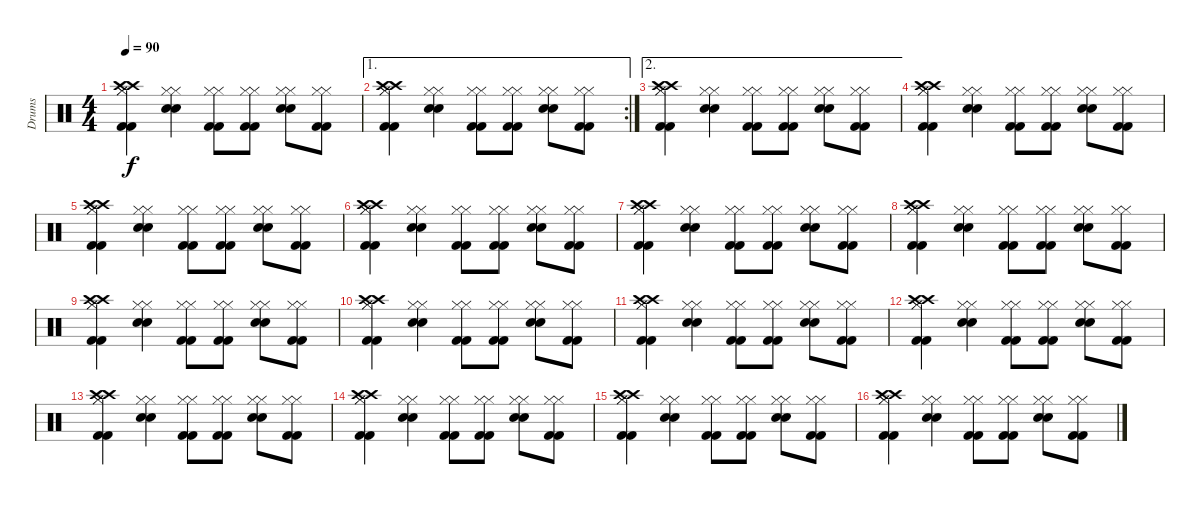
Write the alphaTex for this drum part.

\track ("Drums" "Drums") {instrument percussion}
\staff {score}
\articulation defaults
\ts (4 4)
\tempo 90
\clef neutral
\ks c
("Crash high (hit)" "Crash high (hit)" "Hi-Hat (closed)" "Hi-Hat (closed)" "Kick (hit) 2" "Kick (hit) 2").4{dy f} ("Hi-Hat (closed)" "Hi-Hat (closed)" "Snare (hit) 2" "Snare (hit) 2").4 ("Hi-Hat (closed)" "Hi-Hat (closed)" "Kick (hit) 2" "Kick (hit) 2").8 ("Hi-Hat (closed)" "Hi-Hat (closed)" "Kick (hit) 2" "Kick (hit) 2").8 ("Hi-Hat (closed)" "Hi-Hat (closed)" "Snare (hit) 2" "Snare (hit) 2").8 ("Hi-Hat (closed)" "Hi-Hat (closed)" "Kick (hit) 2" "Kick (hit) 2").8 |
\ae 1
\rc 2
("Crash high (hit)" "Crash high (hit)" "Hi-Hat (closed)" "Hi-Hat (closed)" "Kick (hit) 2" "Kick (hit) 2").4 ("Hi-Hat (closed)" "Hi-Hat (closed)" "Snare (hit) 2" "Snare (hit) 2").4 ("Hi-Hat (closed)" "Hi-Hat (closed)" "Kick (hit) 2" "Kick (hit) 2").8 ("Hi-Hat (closed)" "Hi-Hat (closed)" "Kick (hit) 2" "Kick (hit) 2").8 ("Hi-Hat (closed)" "Hi-Hat (closed)" "Snare (hit) 2" "Snare (hit) 2").8 ("Hi-Hat (closed)" "Hi-Hat (closed)" "Kick (hit) 2" "Kick (hit) 2").8 |
\ae 2
("Crash high (hit)" "Crash high (hit)" "Hi-Hat (closed)" "Hi-Hat (closed)" "Kick (hit) 2" "Kick (hit) 2").4 ("Hi-Hat (closed)" "Hi-Hat (closed)" "Snare (hit) 2" "Snare (hit) 2").4 ("Hi-Hat (closed)" "Hi-Hat (closed)" "Kick (hit) 2" "Kick (hit) 2").8 ("Hi-Hat (closed)" "Hi-Hat (closed)" "Kick (hit) 2" "Kick (hit) 2").8 ("Hi-Hat (closed)" "Hi-Hat (closed)" "Snare (hit) 2" "Snare (hit) 2").8 ("Hi-Hat (closed)" "Hi-Hat (closed)" "Kick (hit) 2" "Kick (hit) 2").8 |
("Crash high (hit)" "Crash high (hit)" "Hi-Hat (closed)" "Hi-Hat (closed)" "Kick (hit) 2" "Kick (hit) 2").4 ("Hi-Hat (closed)" "Hi-Hat (closed)" "Snare (hit) 2" "Snare (hit) 2").4 ("Hi-Hat (closed)" "Hi-Hat (closed)" "Kick (hit) 2" "Kick (hit) 2").8 ("Hi-Hat (closed)" "Hi-Hat (closed)" "Kick (hit) 2" "Kick (hit) 2").8 ("Hi-Hat (closed)" "Hi-Hat (closed)" "Snare (hit) 2" "Snare (hit) 2").8 ("Hi-Hat (closed)" "Hi-Hat (closed)" "Kick (hit) 2" "Kick (hit) 2").8 |
("Crash high (hit)" "Crash high (hit)" "Hi-Hat (closed)" "Hi-Hat (closed)" "Kick (hit) 2" "Kick (hit) 2").4 ("Hi-Hat (closed)" "Hi-Hat (closed)" "Snare (hit) 2" "Snare (hit) 2").4 ("Hi-Hat (closed)" "Hi-Hat (closed)" "Kick (hit) 2" "Kick (hit) 2").8 ("Hi-Hat (closed)" "Hi-Hat (closed)" "Kick (hit) 2" "Kick (hit) 2").8 ("Hi-Hat (closed)" "Hi-Hat (closed)" "Snare (hit) 2" "Snare (hit) 2").8 ("Hi-Hat (closed)" "Hi-Hat (closed)" "Kick (hit) 2" "Kick (hit) 2").8 |
("Crash high (hit)" "Crash high (hit)" "Hi-Hat (closed)" "Hi-Hat (closed)" "Kick (hit) 2" "Kick (hit) 2").4 ("Hi-Hat (closed)" "Hi-Hat (closed)" "Snare (hit) 2" "Snare (hit) 2").4 ("Hi-Hat (closed)" "Hi-Hat (closed)" "Kick (hit) 2" "Kick (hit) 2").8 ("Hi-Hat (closed)" "Hi-Hat (closed)" "Kick (hit) 2" "Kick (hit) 2").8 ("Hi-Hat (closed)" "Hi-Hat (closed)" "Snare (hit) 2" "Snare (hit) 2").8 ("Hi-Hat (closed)" "Hi-Hat (closed)" "Kick (hit) 2" "Kick (hit) 2").8 |
("Crash high (hit)" "Crash high (hit)" "Hi-Hat (closed)" "Hi-Hat (closed)" "Kick (hit) 2" "Kick (hit) 2").4 ("Hi-Hat (closed)" "Hi-Hat (closed)" "Snare (hit) 2" "Snare (hit) 2").4 ("Hi-Hat (closed)" "Hi-Hat (closed)" "Kick (hit) 2" "Kick (hit) 2").8 ("Hi-Hat (closed)" "Hi-Hat (closed)" "Kick (hit) 2" "Kick (hit) 2").8 ("Hi-Hat (closed)" "Hi-Hat (closed)" "Snare (hit) 2" "Snare (hit) 2").8 ("Hi-Hat (closed)" "Hi-Hat (closed)" "Kick (hit) 2" "Kick (hit) 2").8 |
("Crash high (hit)" "Crash high (hit)" "Hi-Hat (closed)" "Hi-Hat (closed)" "Kick (hit) 2" "Kick (hit) 2").4 ("Hi-Hat (closed)" "Hi-Hat (closed)" "Snare (hit) 2" "Snare (hit) 2").4 ("Hi-Hat (closed)" "Hi-Hat (closed)" "Kick (hit) 2" "Kick (hit) 2").8 ("Hi-Hat (closed)" "Hi-Hat (closed)" "Kick (hit) 2" "Kick (hit) 2").8 ("Hi-Hat (closed)" "Hi-Hat (closed)" "Snare (hit) 2" "Snare (hit) 2").8 ("Hi-Hat (closed)" "Hi-Hat (closed)" "Kick (hit) 2" "Kick (hit) 2").8 |
("Crash high (hit)" "Crash high (hit)" "Hi-Hat (closed)" "Hi-Hat (closed)" "Kick (hit) 2" "Kick (hit) 2").4 ("Hi-Hat (closed)" "Hi-Hat (closed)" "Snare (hit) 2" "Snare (hit) 2").4 ("Hi-Hat (closed)" "Hi-Hat (closed)" "Kick (hit) 2" "Kick (hit) 2").8 ("Hi-Hat (closed)" "Hi-Hat (closed)" "Kick (hit) 2" "Kick (hit) 2").8 ("Hi-Hat (closed)" "Hi-Hat (closed)" "Snare (hit) 2" "Snare (hit) 2").8 ("Hi-Hat (closed)" "Hi-Hat (closed)" "Kick (hit) 2" "Kick (hit) 2").8 |
("Crash high (hit)" "Crash high (hit)" "Hi-Hat (closed)" "Hi-Hat (closed)" "Kick (hit) 2" "Kick (hit) 2").4 ("Hi-Hat (closed)" "Hi-Hat (closed)" "Snare (hit) 2" "Snare (hit) 2").4 ("Hi-Hat (closed)" "Hi-Hat (closed)" "Kick (hit) 2" "Kick (hit) 2").8 ("Hi-Hat (closed)" "Hi-Hat (closed)" "Kick (hit) 2" "Kick (hit) 2").8 ("Hi-Hat (closed)" "Hi-Hat (closed)" "Snare (hit) 2" "Snare (hit) 2").8 ("Hi-Hat (closed)" "Hi-Hat (closed)" "Kick (hit) 2" "Kick (hit) 2").8 |
("Crash high (hit)" "Crash high (hit)" "Hi-Hat (closed)" "Hi-Hat (closed)" "Kick (hit) 2" "Kick (hit) 2").4 ("Hi-Hat (closed)" "Hi-Hat (closed)" "Snare (hit) 2" "Snare (hit) 2").4 ("Hi-Hat (closed)" "Hi-Hat (closed)" "Kick (hit) 2" "Kick (hit) 2").8 ("Hi-Hat (closed)" "Hi-Hat (closed)" "Kick (hit) 2" "Kick (hit) 2").8 ("Hi-Hat (closed)" "Hi-Hat (closed)" "Snare (hit) 2" "Snare (hit) 2").8 ("Hi-Hat (closed)" "Hi-Hat (closed)" "Kick (hit) 2" "Kick (hit) 2").8 |
("Crash high (hit)" "Crash high (hit)" "Hi-Hat (closed)" "Hi-Hat (closed)" "Kick (hit) 2" "Kick (hit) 2").4 ("Hi-Hat (closed)" "Hi-Hat (closed)" "Snare (hit) 2" "Snare (hit) 2").4 ("Hi-Hat (closed)" "Hi-Hat (closed)" "Kick (hit) 2" "Kick (hit) 2").8 ("Hi-Hat (closed)" "Hi-Hat (closed)" "Kick (hit) 2" "Kick (hit) 2").8 ("Hi-Hat (closed)" "Hi-Hat (closed)" "Snare (hit) 2" "Snare (hit) 2").8 ("Hi-Hat (closed)" "Hi-Hat (closed)" "Kick (hit) 2" "Kick (hit) 2").8 |
("Crash high (hit)" "Crash high (hit)" "Hi-Hat (closed)" "Hi-Hat (closed)" "Kick (hit) 2" "Kick (hit) 2").4 ("Hi-Hat (closed)" "Hi-Hat (closed)" "Snare (hit) 2" "Snare (hit) 2").4 ("Hi-Hat (closed)" "Hi-Hat (closed)" "Kick (hit) 2" "Kick (hit) 2").8 ("Hi-Hat (closed)" "Hi-Hat (closed)" "Kick (hit) 2" "Kick (hit) 2").8 ("Hi-Hat (closed)" "Hi-Hat (closed)" "Snare (hit) 2" "Snare (hit) 2").8 ("Hi-Hat (closed)" "Hi-Hat (closed)" "Kick (hit) 2" "Kick (hit) 2").8 |
("Crash high (hit)" "Crash high (hit)" "Hi-Hat (closed)" "Hi-Hat (closed)" "Kick (hit) 2" "Kick (hit) 2").4 ("Hi-Hat (closed)" "Hi-Hat (closed)" "Snare (hit) 2" "Snare (hit) 2").4 ("Hi-Hat (closed)" "Hi-Hat (closed)" "Kick (hit) 2" "Kick (hit) 2").8 ("Hi-Hat (closed)" "Hi-Hat (closed)" "Kick (hit) 2" "Kick (hit) 2").8 ("Hi-Hat (closed)" "Hi-Hat (closed)" "Snare (hit) 2" "Snare (hit) 2").8 ("Hi-Hat (closed)" "Hi-Hat (closed)" "Kick (hit) 2" "Kick (hit) 2").8 |
("Crash high (hit)" "Crash high (hit)" "Hi-Hat (closed)" "Hi-Hat (closed)" "Kick (hit) 2" "Kick (hit) 2").4 ("Hi-Hat (closed)" "Hi-Hat (closed)" "Snare (hit) 2" "Snare (hit) 2").4 ("Hi-Hat (closed)" "Hi-Hat (closed)" "Kick (hit) 2" "Kick (hit) 2").8 ("Hi-Hat (closed)" "Hi-Hat (closed)" "Kick (hit) 2" "Kick (hit) 2").8 ("Hi-Hat (closed)" "Hi-Hat (closed)" "Snare (hit) 2" "Snare (hit) 2").8 ("Hi-Hat (closed)" "Hi-Hat (closed)" "Kick (hit) 2" "Kick (hit) 2").8 |
("Crash high (hit)" "Crash high (hit)" "Hi-Hat (closed)" "Hi-Hat (closed)" "Kick (hit) 2" "Kick (hit) 2").4 ("Hi-Hat (closed)" "Hi-Hat (closed)" "Snare (hit) 2" "Snare (hit) 2").4 ("Hi-Hat (closed)" "Hi-Hat (closed)" "Kick (hit) 2" "Kick (hit) 2").8 ("Hi-Hat (closed)" "Hi-Hat (closed)" "Kick (hit) 2" "Kick (hit) 2").8 ("Hi-Hat (closed)" "Hi-Hat (closed)" "Snare (hit) 2" "Snare (hit) 2").8 ("Hi-Hat (closed)" "Hi-Hat (closed)" "Kick (hit) 2" "Kick (hit) 2").8
